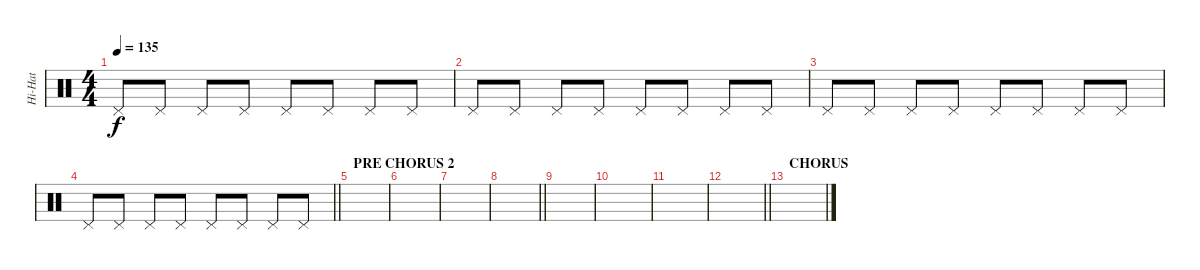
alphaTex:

\track ("Hi-Hat" "Hi-Hat") {instrument percussion}
\staff {score}
\articulation defaults
\ts (4 4)
\tempo 135
\clef neutral
\ks c "Pedal Hi-Hat (hit)".8{dy f} "Pedal Hi-Hat (hit)".8 "Pedal Hi-Hat (hit)".8 "Pedal Hi-Hat (hit)".8 "Pedal Hi-Hat (hit)".8 "Pedal Hi-Hat (hit)".8 "Pedal Hi-Hat (hit)".8 "Pedal Hi-Hat (hit)".8
|
"Pedal Hi-Hat (hit)".8 "Pedal Hi-Hat (hit)".8 "Pedal Hi-Hat (hit)".8 "Pedal Hi-Hat (hit)".8 "Pedal Hi-Hat (hit)".8 "Pedal Hi-Hat (hit)".8 "Pedal Hi-Hat (hit)".8 "Pedal Hi-Hat (hit)".8 |
"Pedal Hi-Hat (hit)".8 "Pedal Hi-Hat (hit)".8 "Pedal Hi-Hat (hit)".8 "Pedal Hi-Hat (hit)".8 "Pedal Hi-Hat (hit)".8 "Pedal Hi-Hat (hit)".8 "Pedal Hi-Hat (hit)".8 "Pedal Hi-Hat (hit)".8 |
\barLineRight lightlight "Pedal Hi-Hat (hit)".8 "Pedal Hi-Hat (hit)".8 "Pedal Hi-Hat (hit)".8 "Pedal Hi-Hat (hit)".8 "Pedal Hi-Hat (hit)".8 "Pedal Hi-Hat (hit)".8 "Pedal Hi-Hat (hit)".8 "Pedal Hi-Hat (hit)".8
|
\section ("" "PRE CHORUS 2")
|
|
|
\barLineRight lightlight
|
|
|
|
\barLineRight lightlight
|
\section ("" "CHORUS")
